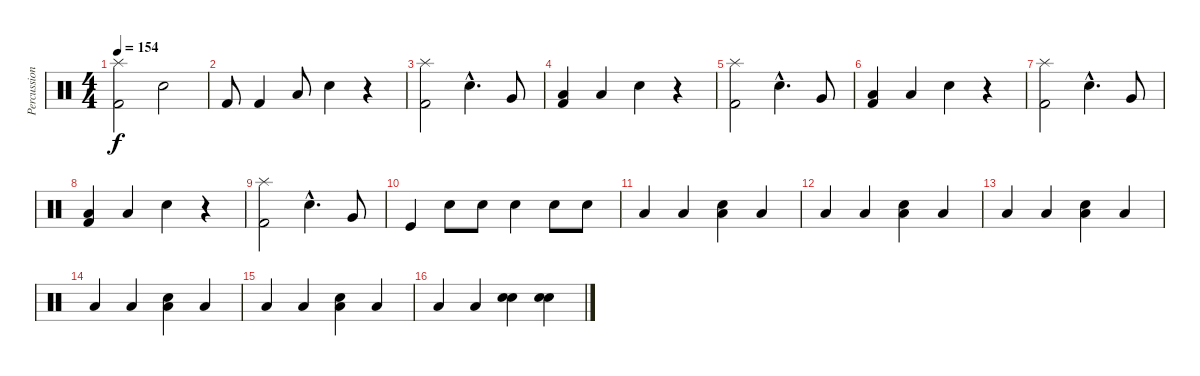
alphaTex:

\track ("Percussion" "Percussion") {instrument percussion}
\staff {score}
\articulation defaults
\ts (4 4)
\tempo 154
\clef neutral
\ks c
("Kick (hit) 2" "Splash (hit)").2{dy f} "Snare (hit) 2".2 |
"Kick (hit) 2".8 "Kick (hit) 2".4 "Low Floor Tom (hit)".8 "Snare (hit) 2".4 r.4 |
("Kick (hit) 2" "Splash (hit)").2 "Snare (hit) 2"{hac}.4{d} "Very Low Tom (hit)".8 |
("Low Floor Tom (hit)" "Kick (hit) 2").4 "Low Floor Tom (hit)".4 "Snare (hit) 2".4 r.4 |
("Kick (hit) 2" "Splash (hit)").2 "Snare (hit) 2"{hac}.4{d} "Very Low Tom (hit)".8 |
("Low Floor Tom (hit)" "Kick (hit) 2").4 "Low Floor Tom (hit)".4 "Snare (hit) 2".4 r.4 |
("Kick (hit) 2" "Splash (hit)").2 "Snare (hit) 2"{hac}.4{d} "Very Low Tom (hit)".8 |
("Low Floor Tom (hit)" "Kick (hit) 2").4 "Low Floor Tom (hit)".4 "Snare (hit) 2".4 r.4 |
("Kick (hit) 2" "Splash (hit)").2 "Snare (hit) 2"{hac}.4{d} "Very Low Tom (hit)".8 |
"Kick (hit)".4 "Snare (hit) 2".8 "Snare (hit) 2".8 "Snare (hit) 2".4 "Snare (hit) 2".8 "Snare (hit) 2".8 |
"Low Floor Tom (hit)".4 "Low Floor Tom (hit)".4 ("Low Floor Tom (hit)" "Snare (hit) 2").4 "Low Tom (hit)".4 |
"Low Floor Tom (hit)".4 "Low Floor Tom (hit)".4 ("Low Floor Tom (hit)" "Snare (hit) 2").4 "Low Tom (hit)".4 |
"Low Floor Tom (hit)".4 "Low Floor Tom (hit)".4 ("Low Floor Tom (hit)" "Snare (hit) 2").4 "Low Tom (hit)".4 |
"Low Floor Tom (hit)".4 "Low Floor Tom (hit)".4 ("Low Floor Tom (hit)" "Snare (hit) 2").4 "Low Tom (hit)".4 |
"Low Floor Tom (hit)".4 "Low Floor Tom (hit)".4 ("Low Floor Tom (hit)" "Snare (hit) 2").4 "Low Tom (hit)".4 |
"Low Floor Tom (hit)".4 "Low Floor Tom (hit)".4 ("Snare (hit) 2" "Snare (hit) 2").4 ("Snare (hit) 2" "Snare (hit) 2").4
